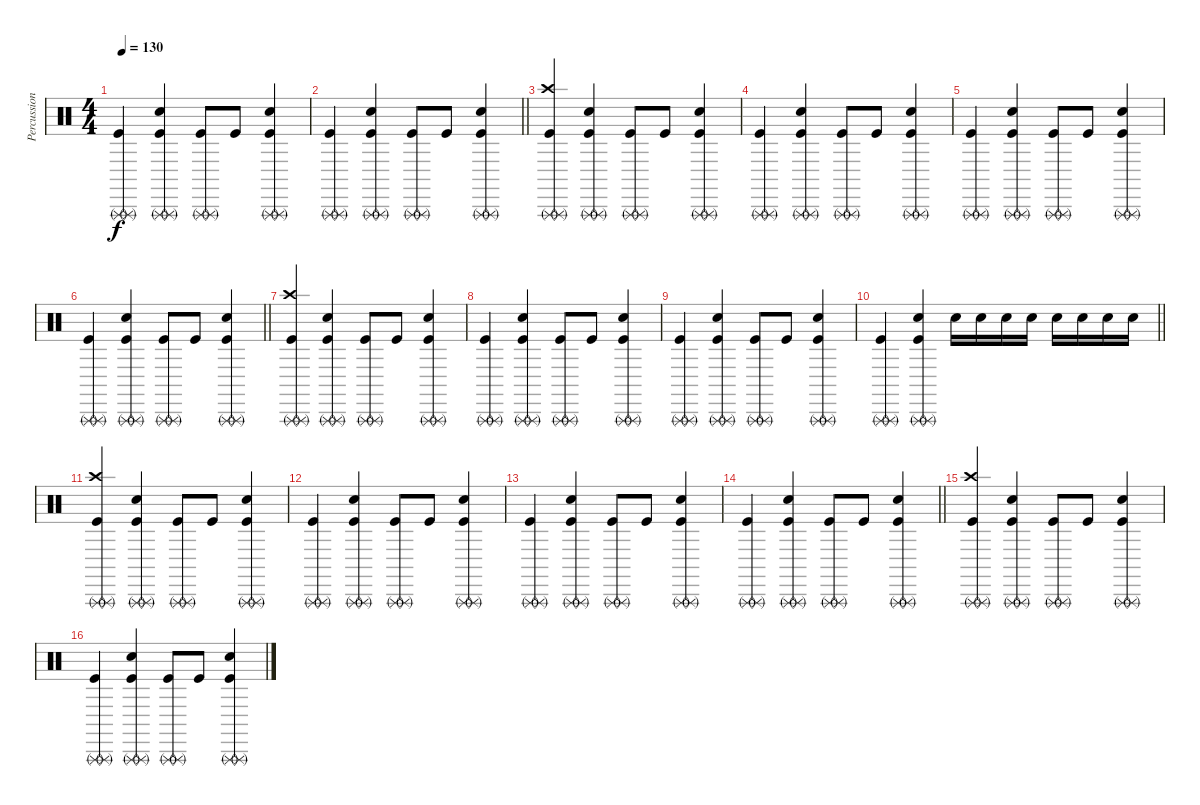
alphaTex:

\track ("Percussion" "Percussion") {instrument percussion}
\staff {score}
\articulation defaults
\ts (4 4)
\tempo 130
\clef neutral
\ks c
("Triangle (rnute)" "Triangle (rnute)" "Kick (hit)").4{dy f} ("Triangle (rnute)" "Triangle (rnute)" "Snare (hit) 2" "Kick (hit)").4 ("Triangle (rnute)" "Triangle (rnute)" "Kick (hit)").8 "Kick (hit)".8 ("Triangle (rnute)" "Triangle (rnute)" "Snare (hit) 2" "Kick (hit)").4 |
\barLineRight lightlight
("Triangle (rnute)" "Triangle (rnute)" "Kick (hit)").4 ("Triangle (rnute)" "Triangle (rnute)" "Snare (hit) 2" "Kick (hit)").4 ("Triangle (rnute)" "Triangle (rnute)" "Kick (hit)").8 "Kick (hit)".8 ("Triangle (rnute)" "Triangle (rnute)" "Snare (hit) 2" "Kick (hit)").4 |
("Crash high (hit)" "Triangle (rnute)" "Triangle (rnute)" "Kick (hit)").4 ("Triangle (rnute)" "Triangle (rnute)" "Snare (hit) 2" "Kick (hit)").4 ("Triangle (rnute)" "Triangle (rnute)" "Kick (hit)").8 "Kick (hit)".8 ("Triangle (rnute)" "Triangle (rnute)" "Snare (hit) 2" "Kick (hit)").4 |
("Triangle (rnute)" "Triangle (rnute)" "Kick (hit)").4 ("Triangle (rnute)" "Triangle (rnute)" "Snare (hit) 2" "Kick (hit)").4 ("Triangle (rnute)" "Triangle (rnute)" "Kick (hit)").8 "Kick (hit)".8 ("Triangle (rnute)" "Triangle (rnute)" "Snare (hit) 2" "Kick (hit)").4 |
("Triangle (rnute)" "Triangle (rnute)" "Kick (hit)").4 ("Triangle (rnute)" "Triangle (rnute)" "Snare (hit) 2" "Kick (hit)").4 ("Triangle (rnute)" "Triangle (rnute)" "Kick (hit)").8 "Kick (hit)".8 ("Triangle (rnute)" "Triangle (rnute)" "Snare (hit) 2" "Kick (hit)").4 |
\barLineRight lightlight
("Triangle (rnute)" "Triangle (rnute)" "Kick (hit)").4 ("Triangle (rnute)" "Triangle (rnute)" "Snare (hit) 2" "Kick (hit)").4 ("Triangle (rnute)" "Triangle (rnute)" "Kick (hit)").8 "Kick (hit)".8 ("Triangle (rnute)" "Triangle (rnute)" "Snare (hit) 2" "Kick (hit)").4 |
("Crash high (hit)" "Triangle (rnute)" "Triangle (rnute)" "Kick (hit)").4 ("Triangle (rnute)" "Triangle (rnute)" "Snare (hit) 2" "Kick (hit)").4 ("Triangle (rnute)" "Triangle (rnute)" "Kick (hit)").8 "Kick (hit)".8 ("Triangle (rnute)" "Triangle (rnute)" "Snare (hit) 2" "Kick (hit)").4 |
("Triangle (rnute)" "Triangle (rnute)" "Kick (hit)").4 ("Triangle (rnute)" "Triangle (rnute)" "Snare (hit) 2" "Kick (hit)").4 ("Triangle (rnute)" "Triangle (rnute)" "Kick (hit)").8 "Kick (hit)".8 ("Triangle (rnute)" "Triangle (rnute)" "Snare (hit) 2" "Kick (hit)").4 |
("Triangle (rnute)" "Triangle (rnute)" "Kick (hit)").4 ("Triangle (rnute)" "Triangle (rnute)" "Snare (hit) 2" "Kick (hit)").4 ("Triangle (rnute)" "Triangle (rnute)" "Kick (hit)").8 "Kick (hit)".8 ("Triangle (rnute)" "Triangle (rnute)" "Snare (hit) 2" "Kick (hit)").4 |
\barLineRight lightlight
("Triangle (rnute)" "Triangle (rnute)" "Kick (hit)").4 ("Triangle (rnute)" "Triangle (rnute)" "Snare (hit) 2" "Kick (hit)").4 "Snare (hit) 2".16 "Snare (hit) 2".16 "Snare (hit) 2".16 "Snare (hit) 2".16 "Snare (hit) 2".16 "Snare (hit) 2".16 "Snare (hit) 2".16 "Snare (hit) 2".16 |
("Crash high (hit)" "Triangle (rnute)" "Triangle (rnute)" "Kick (hit)").4 ("Triangle (rnute)" "Triangle (rnute)" "Snare (hit) 2" "Kick (hit)").4 ("Triangle (rnute)" "Triangle (rnute)" "Kick (hit)").8 "Kick (hit)".8 ("Triangle (rnute)" "Triangle (rnute)" "Snare (hit) 2" "Kick (hit)").4 |
("Triangle (rnute)" "Triangle (rnute)" "Kick (hit)").4 ("Triangle (rnute)" "Triangle (rnute)" "Snare (hit) 2" "Kick (hit)").4 ("Triangle (rnute)" "Triangle (rnute)" "Kick (hit)").8 "Kick (hit)".8 ("Triangle (rnute)" "Triangle (rnute)" "Snare (hit) 2" "Kick (hit)").4 |
("Triangle (rnute)" "Triangle (rnute)" "Kick (hit)").4 ("Triangle (rnute)" "Triangle (rnute)" "Snare (hit) 2" "Kick (hit)").4 ("Triangle (rnute)" "Triangle (rnute)" "Kick (hit)").8 "Kick (hit)".8 ("Triangle (rnute)" "Triangle (rnute)" "Snare (hit) 2" "Kick (hit)").4 |
\barLineRight lightlight
("Triangle (rnute)" "Triangle (rnute)" "Kick (hit)").4 ("Triangle (rnute)" "Triangle (rnute)" "Snare (hit) 2" "Kick (hit)").4 ("Triangle (rnute)" "Triangle (rnute)" "Kick (hit)").8 "Kick (hit)".8 ("Triangle (rnute)" "Triangle (rnute)" "Snare (hit) 2" "Kick (hit)").4 |
("Crash high (hit)" "Triangle (rnute)" "Triangle (rnute)" "Kick (hit)").4{volume 11} ("Triangle (rnute)" "Triangle (rnute)" "Snare (hit) 2" "Kick (hit)").4 ("Triangle (rnute)" "Triangle (rnute)" "Kick (hit)").8 "Kick (hit)".8 ("Triangle (rnute)" "Triangle (rnute)" "Snare (hit) 2" "Kick (hit)").4 |
("Triangle (rnute)" "Triangle (rnute)" "Kick (hit)").4 ("Triangle (rnute)" "Triangle (rnute)" "Snare (hit) 2" "Kick (hit)").4 ("Triangle (rnute)" "Triangle (rnute)" "Kick (hit)").8 "Kick (hit)".8 ("Triangle (rnute)" "Triangle (rnute)" "Snare (hit) 2" "Kick (hit)").4
